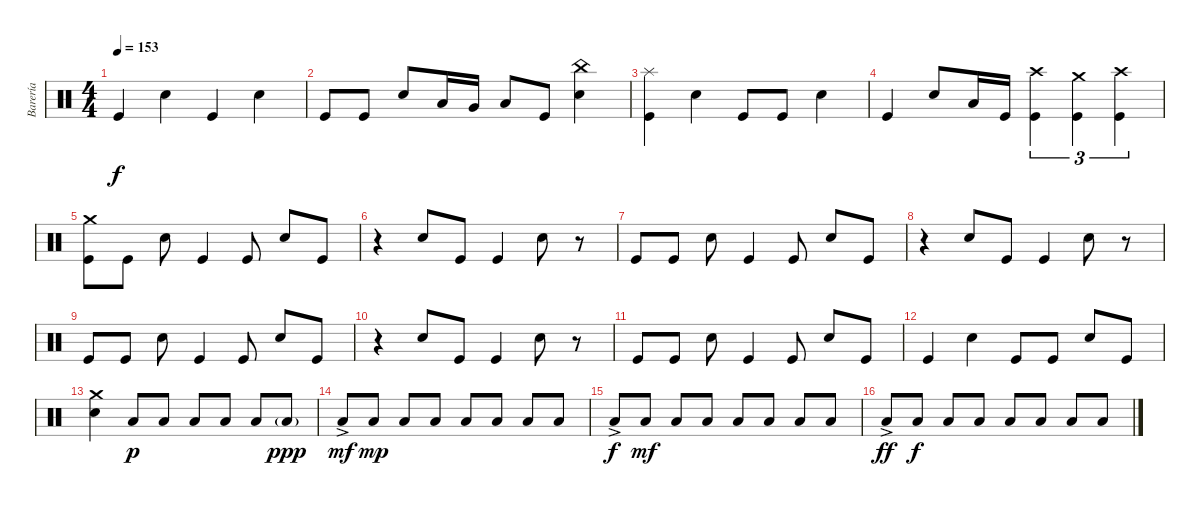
\track ("Barería" "Barería") {instrument percussion}
\staff {score}
\articulation defaults
\ts (4 4)
\tempo 153
\clef neutral
\ks c "Kick (hit)".4{dy f} "Snare (hit) 2".4 "Kick (hit)".4 "Snare (hit) 2".4
|
"Kick (hit)".8 "Kick (hit)".8 "Snare (hit) 2".8 "Low Tom (hit)".16 "Very Low Tom (hit)".16 "Low Floor Tom (hit)".8 "Kick (hit)".8 ("China (hit)" "Snare (hit) 2").4 |
("Splash (hit)" "Kick (hit)").4 "Snare (hit) 2".4 "Kick (hit)".8 "Kick (hit)".8 "Snare (hit) 2".4 |
"Kick (hit)".4 "Snare (hit) 2".8 "Low Floor Tom (hit)".16 "Kick (hit)".16 ("Crash high (hit)" "Kick (hit)").4{tu (3 2)} ("Crash medium (hit)" "Kick (hit)").4{tu (3 2)} ("Crash high (hit)" "Kick (hit)").4{tu (3 2)} |
("Crash medium (hit)" "Kick (hit)").8 "Kick (hit)".8 "Snare (hit) 2".8 "Kick (hit)".4 "Kick (hit)".8 "Snare (hit) 2".8 "Kick (hit)".8 |
r.4 "Snare (hit) 2".8 "Kick (hit)".8 "Kick (hit)".4 "Snare (hit) 2".8 r.8 |
"Kick (hit)".8 "Kick (hit)".8 "Snare (hit) 2".8 "Kick (hit)".4 "Kick (hit)".8 "Snare (hit) 2".8 "Kick (hit)".8 |
r.4 "Snare (hit) 2".8 "Kick (hit)".8 "Kick (hit)".4 "Snare (hit) 2".8 r.8 |
"Kick (hit)".8 "Kick (hit)".8 "Snare (hit) 2".8 "Kick (hit)".4 "Kick (hit)".8 "Snare (hit) 2".8 "Kick (hit)".8 |
r.4 "Snare (hit) 2".8 "Kick (hit)".8 "Kick (hit)".4 "Snare (hit) 2".8 r.8 |
"Kick (hit)".8 "Kick (hit)".8 "Snare (hit) 2".8 "Kick (hit)".4 "Kick (hit)".8 "Snare (hit) 2".8 "Kick (hit)".8 |
"Kick (hit)".4 "Snare (hit) 2".4 "Kick (hit)".8 "Kick (hit)".8 "Snare (hit) 2".8 "Kick (hit)".8 |
("Crash medium (hit)" "Snare (hit) 2").4 "Low Floor Tom (hit)".8{dy p} "Low Floor Tom (hit)".8 "Low Floor Tom (hit)".8 "Low Floor Tom (hit)".8 "Low Floor Tom (hit)".8 "Low Floor Tom (hit)"{g}.8{dy ppp} |
"Low Floor Tom (hit)"{ac}.8{dy mf} "Low Floor Tom (hit)".8{dy mp} "Low Floor Tom (hit)".8 "Low Floor Tom (hit)".8 "Low Floor Tom (hit)".8 "Low Floor Tom (hit)".8 "Low Floor Tom (hit)".8 "Low Floor Tom (hit)".8 |
"Low Floor Tom (hit)"{ac}.8{dy f} "Low Floor Tom (hit)".8{dy mf} "Low Floor Tom (hit)".8 "Low Floor Tom (hit)".8 "Low Floor Tom (hit)".8 "Low Floor Tom (hit)".8 "Low Floor Tom (hit)".8 "Low Floor Tom (hit)".8 |
"Low Floor Tom (hit)"{ac}.8{dy ff} "Low Floor Tom (hit)".8{dy f} "Low Floor Tom (hit)".8 "Low Floor Tom (hit)".8 "Low Floor Tom (hit)".8 "Low Floor Tom (hit)".8 "Low Floor Tom (hit)".8 "Low Floor Tom (hit)".8
